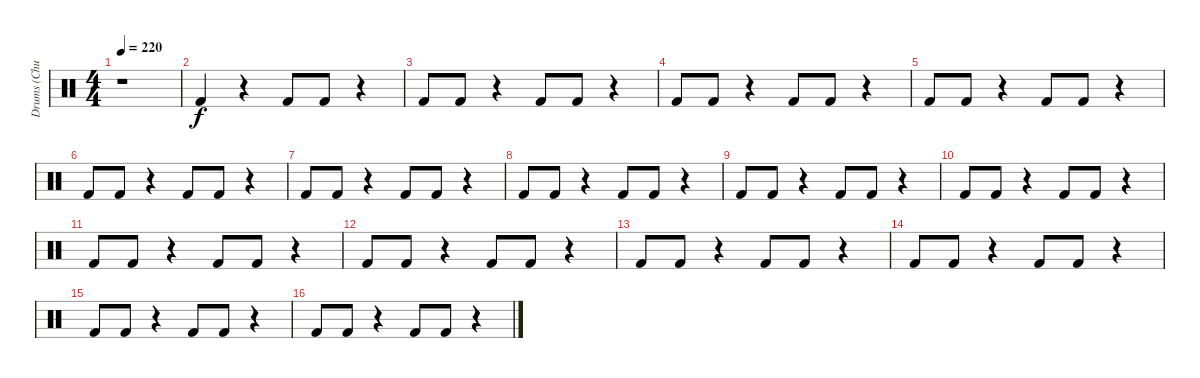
\track ("Drums (Chuck Behler)" "Drums (Chu") {instrument percussion}
\staff {score}
\articulation defaults
\ts (4 4)
\tempo 220
\clef neutral
\ks c
r.1{dy f} |
"Kick (hit) 2".4 r.4 "Kick (hit) 2".8 "Kick (hit) 2".8 r.4 |
"Kick (hit) 2".8 "Kick (hit) 2".8 r.4 "Kick (hit) 2".8 "Kick (hit) 2".8 r.4 |
"Kick (hit) 2".8 "Kick (hit) 2".8 r.4 "Kick (hit) 2".8 "Kick (hit) 2".8 r.4 |
"Kick (hit) 2".8 "Kick (hit) 2".8 r.4 "Kick (hit) 2".8 "Kick (hit) 2".8 r.4 |
"Kick (hit) 2".8 "Kick (hit) 2".8 r.4 "Kick (hit) 2".8 "Kick (hit) 2".8 r.4 |
"Kick (hit) 2".8 "Kick (hit) 2".8 r.4 "Kick (hit) 2".8 "Kick (hit) 2".8 r.4 |
"Kick (hit) 2".8 "Kick (hit) 2".8 r.4 "Kick (hit) 2".8 "Kick (hit) 2".8 r.4 |
"Kick (hit) 2".8 "Kick (hit) 2".8 r.4 "Kick (hit) 2".8 "Kick (hit) 2".8 r.4 |
"Kick (hit) 2".8 "Kick (hit) 2".8 r.4 "Kick (hit) 2".8 "Kick (hit) 2".8 r.4 |
"Kick (hit) 2".8 "Kick (hit) 2".8 r.4 "Kick (hit) 2".8 "Kick (hit) 2".8 r.4 |
"Kick (hit) 2".8 "Kick (hit) 2".8 r.4 "Kick (hit) 2".8 "Kick (hit) 2".8 r.4 |
"Kick (hit) 2".8 "Kick (hit) 2".8 r.4 "Kick (hit) 2".8 "Kick (hit) 2".8 r.4 |
"Kick (hit) 2".8 "Kick (hit) 2".8 r.4 "Kick (hit) 2".8 "Kick (hit) 2".8 r.4 |
"Kick (hit) 2".8 "Kick (hit) 2".8 r.4 "Kick (hit) 2".8 "Kick (hit) 2".8 r.4 |
"Kick (hit) 2".8 "Kick (hit) 2".8 r.4 "Kick (hit) 2".8 "Kick (hit) 2".8 r.4
